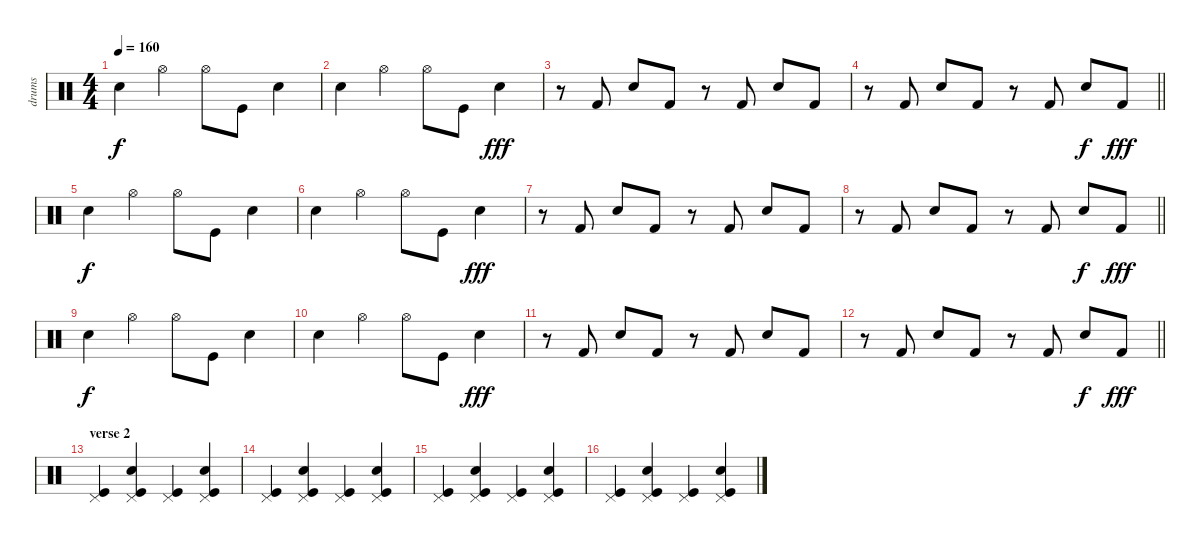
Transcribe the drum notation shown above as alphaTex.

\track ("drums" "drums") {instrument percussion}
\staff {score}
\articulation defaults
\ts (4 4)
\tempo 160
\clef neutral
\ks c "Snare (hit) 2".4{dy f} "Hi-Hat (open)".4 "Hi-Hat (open)".8 "Kick (hit)".8 "Snare (hit) 2".4
|
"Snare (hit) 2".4 "Hi-Hat (open)".4 "Hi-Hat (open)".8 "Kick (hit)".8 "Snare (hit) 2".4{dy fff} |
r.8 "Kick (hit) 2".8 "Snare (hit) 2".8 "Kick (hit) 2".8 r.8 "Kick (hit) 2".8 "Snare (hit) 2".8 "Kick (hit) 2".8 |
\barLineRight lightlight
r.8 "Kick (hit) 2".8 "Snare (hit) 2".8 "Kick (hit) 2".8 r.8 "Kick (hit) 2".8 "Snare (hit) 2".8{dy f} "Kick (hit) 2".8{dy fff} |
"Snare (hit) 2".4{dy f} "Hi-Hat (open)".4 "Hi-Hat (open)".8 "Kick (hit)".8 "Snare (hit) 2".4 |
"Snare (hit) 2".4 "Hi-Hat (open)".4 "Hi-Hat (open)".8 "Kick (hit)".8 "Snare (hit) 2".4{dy fff} |
r.8 "Kick (hit) 2".8 "Snare (hit) 2".8 "Kick (hit) 2".8 r.8 "Kick (hit) 2".8 "Snare (hit) 2".8 "Kick (hit) 2".8 |
\barLineRight lightlight
r.8 "Kick (hit) 2".8 "Snare (hit) 2".8 "Kick (hit) 2".8 r.8 "Kick (hit) 2".8 "Snare (hit) 2".8{dy f} "Kick (hit) 2".8{dy fff} |
"Snare (hit) 2".4{dy f} "Hi-Hat (open)".4 "Hi-Hat (open)".8 "Kick (hit)".8 "Snare (hit) 2".4 |
"Snare (hit) 2".4 "Hi-Hat (open)".4 "Hi-Hat (open)".8 "Kick (hit)".8 "Snare (hit) 2".4{dy fff} |
r.8 "Kick (hit) 2".8 "Snare (hit) 2".8 "Kick (hit) 2".8 r.8 "Kick (hit) 2".8 "Snare (hit) 2".8 "Kick (hit) 2".8 |
\barLineRight lightlight
r.8 "Kick (hit) 2".8 "Snare (hit) 2".8 "Kick (hit) 2".8 r.8 "Kick (hit) 2".8 "Snare (hit) 2".8{dy f} "Kick (hit) 2".8{dy fff} |
\section ("" "verse 2")
("Pedal Hi-Hat (hit)" "Kick (hit)").4 ("Snare (hit) 2" "Pedal Hi-Hat (hit)" "Kick (hit)").4 ("Pedal Hi-Hat (hit)" "Kick (hit)").4 ("Snare (hit) 2" "Pedal Hi-Hat (hit)" "Kick (hit)").4 |
("Pedal Hi-Hat (hit)" "Kick (hit)").4 ("Snare (hit) 2" "Pedal Hi-Hat (hit)" "Kick (hit)").4 ("Pedal Hi-Hat (hit)" "Kick (hit)").4 ("Snare (hit) 2" "Pedal Hi-Hat (hit)" "Kick (hit)").4 |
("Pedal Hi-Hat (hit)" "Kick (hit)").4 ("Snare (hit) 2" "Pedal Hi-Hat (hit)" "Kick (hit)").4 ("Pedal Hi-Hat (hit)" "Kick (hit)").4 ("Snare (hit) 2" "Pedal Hi-Hat (hit)" "Kick (hit)").4 |
("Pedal Hi-Hat (hit)" "Kick (hit)").4 ("Snare (hit) 2" "Pedal Hi-Hat (hit)" "Kick (hit)").4 ("Pedal Hi-Hat (hit)" "Kick (hit)").4 ("Snare (hit) 2" "Pedal Hi-Hat (hit)" "Kick (hit)").4
